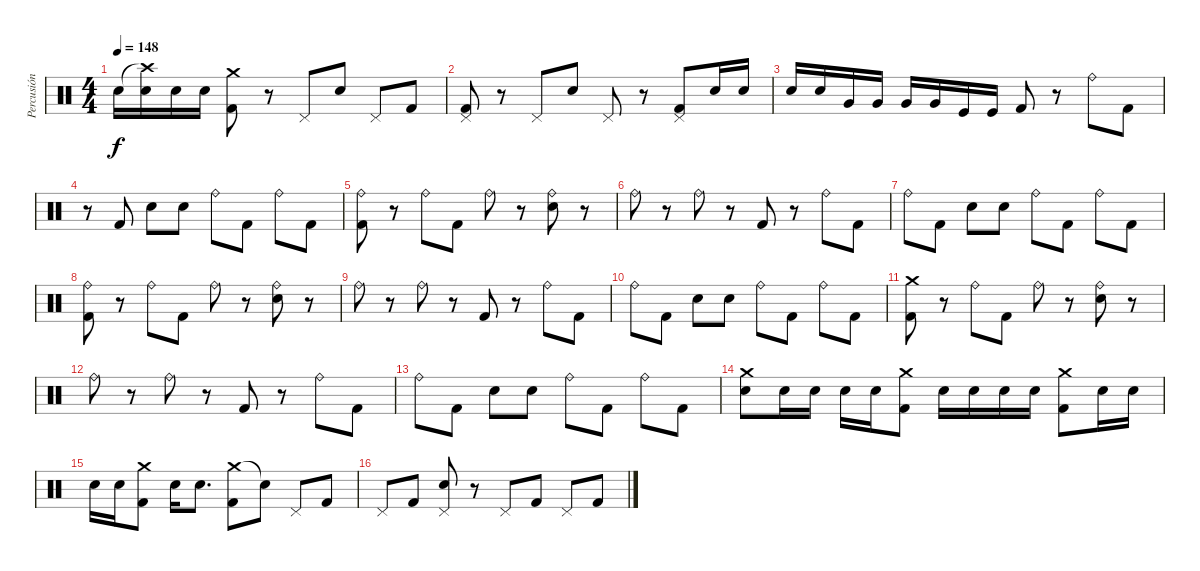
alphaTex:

\track ("Percusión" "Percusión") {instrument percussion}
\staff {score}
\articulation defaults
\ts (4 4)
\tempo 148
\clef neutral
\ks c "Snare (hit) 2".16{dy f}
("Crash high (hit)"{t} "Snare (hit) 2").16 "Snare (hit) 2".16 "Snare (hit) 2".16 ("Crash medium (hit)" "Kick (hit) 2").8 r.8 "Pedal Hi-Hat (hit)".8 "Snare (hit) 2".8 "Pedal Hi-Hat (hit)".8 "Kick (hit) 2".8 |
("Pedal Hi-Hat (hit)" "Kick (hit) 2").8 r.8 "Pedal Hi-Hat (hit)".8 "Snare (hit) 2".8 "Pedal Hi-Hat (hit)".8 r.8 ("Pedal Hi-Hat (hit)" "Kick (hit) 2").8 "Snare (hit) 2".16 "Snare (hit) 2".16 |
"Snare (hit) 2".16 "Snare (hit) 2".16 "Very Low Tom (hit)".16 "Very Low Tom (hit)".16 "Very Low Tom (hit)".16 "Very Low Tom (hit)".16 "Kick (hit)".16 "Kick (hit)".16 "Kick (hit) 2".8 r.8 "Ride (bell)".8 "Kick (hit) 2".8 |
r.8 "Kick (hit) 2".8 "Snare (hit) 2".8 "Snare (hit) 2".8 "Ride (bell)".8 "Kick (hit) 2".8 "Ride (bell)".8 "Kick (hit) 2".8 |
("Ride (bell)" "Kick (hit) 2").8 r.8 "Ride (bell)".8 "Kick (hit) 2".8 "Ride (bell)".8 r.8 ("Ride (bell)" "Snare (hit) 2").8 r.8 |
"Ride (bell)".8 r.8 "Ride (bell)".8 r.8 "Kick (hit) 2".8 r.8 "Ride (bell)".8 "Kick (hit) 2".8 |
"Ride (bell)".8 "Kick (hit) 2".8 "Snare (hit) 2".8 "Snare (hit) 2".8 "Ride (bell)".8 "Kick (hit) 2".8 "Ride (bell)".8 "Kick (hit) 2".8 |
("Ride (bell)" "Kick (hit) 2").8 r.8 "Ride (bell)".8 "Kick (hit) 2".8 "Ride (bell)".8 r.8 ("Ride (bell)" "Snare (hit) 2").8 r.8 |
"Ride (bell)".8 r.8 "Ride (bell)".8 r.8 "Kick (hit) 2".8 r.8 "Ride (bell)".8 "Kick (hit) 2".8 |
"Ride (bell)".8 "Kick (hit) 2".8 "Snare (hit) 2".8 "Snare (hit) 2".8 "Ride (bell)".8 "Kick (hit) 2".8 "Ride (bell)".8 "Kick (hit) 2".8 |
("Crash medium (hit)" "Kick (hit) 2").8 r.8 "Ride (bell)".8 "Kick (hit) 2".8 "Ride (bell)".8 r.8 ("Ride (bell)" "Snare (hit) 2").8 r.8 |
"Ride (bell)".8 r.8 "Ride (bell)".8 r.8 "Kick (hit) 2".8 r.8 "Ride (bell)".8 "Kick (hit) 2".8 |
"Ride (bell)".8 "Kick (hit) 2".8 "Snare (hit) 2".8 "Snare (hit) 2".8 "Ride (bell)".8 "Kick (hit) 2".8 "Ride (bell)".8 "Kick (hit) 2".8 |
("Crash medium (hit)" "Snare (hit) 2").8 "Snare (hit) 2".16 "Snare (hit) 2".16 "Snare (hit) 2".16 "Snare (hit) 2".16 ("Crash medium (hit)" "Kick (hit) 2").8 "Snare (hit) 2".16 "Snare (hit) 2".16 "Snare (hit) 2".16 "Snare (hit) 2".16 ("Crash medium (hit)" "Kick (hit) 2").8 "Snare (hit) 2".16 "Snare (hit) 2".16 |
"Snare (hit) 2".16 "Snare (hit) 2".16 ("Crash medium (hit)" "Kick (hit) 2").8 "Snare (hit) 2".16 "Snare (hit) 2".8{d} ("Crash medium (hit)" "Kick (hit) 2").8 "Snare (hit)"{t}.8 "Pedal Hi-Hat (hit)".8 "Kick (hit) 2".8 |
"Pedal Hi-Hat (hit)".8 "Kick (hit) 2".8 ("Pedal Hi-Hat (hit)" "Snare (hit) 2").8 r.8 "Pedal Hi-Hat (hit)".8 "Kick (hit) 2".8 "Pedal Hi-Hat (hit)".8 "Kick (hit) 2".8
